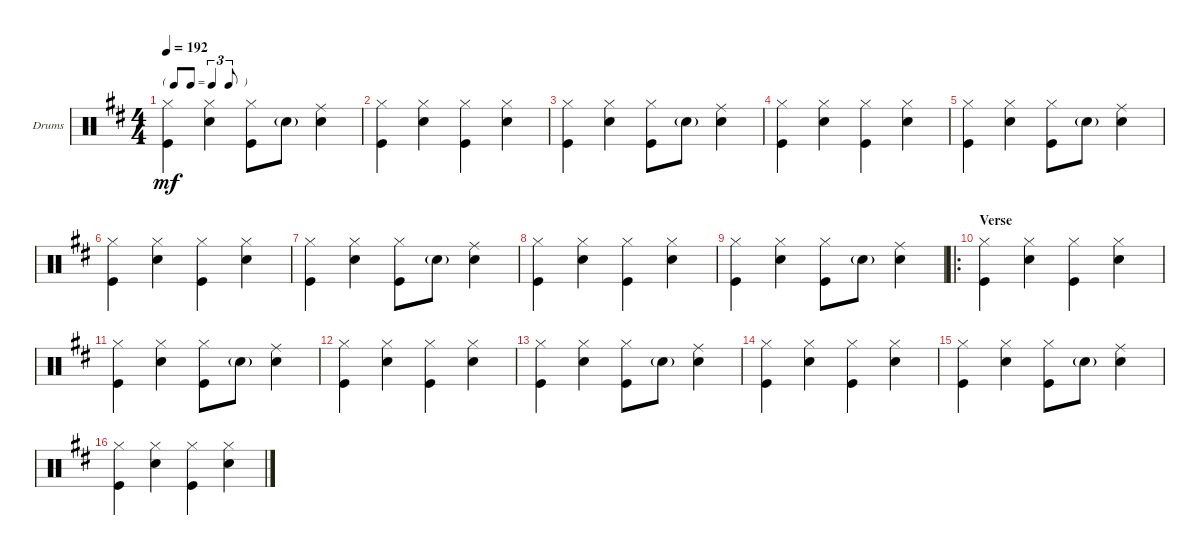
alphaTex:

\defaultSystemsLayout 4
\bracketExtendMode groupsimilarinstruments
\firstSystemTrackNameOrientation horizontal
\otherSystemsTrackNameOrientation horizontal
\track ("Drumkit" "Drums") {instrument percussion}
\staff {score}
\articulation defaults
\ts (4 4)
\tf triplet8th
\tempo 192
\clef neutral
\ks d
("Kick (hit)" "Hi-Hat (closed)").4{dy mf} ("Snare (hit) 2" "Hi-Hat (closed)").4 ("Kick (hit)" "Hi-Hat (closed)").8 "Snare (hit) 2"{g}.8 ("Snare (hit) 2" "Ride (middle)").4 |
("Kick (hit)" "Hi-Hat (closed)").4 ("Snare (hit) 2" "Hi-Hat (closed)").4 ("Kick (hit)" "Hi-Hat (closed)").4 ("Snare (hit) 2" "Hi-Hat (closed)").4 |
("Kick (hit)" "Hi-Hat (closed)").4 ("Snare (hit) 2" "Hi-Hat (closed)").4 ("Kick (hit)" "Hi-Hat (closed)").8 "Snare (hit) 2"{g}.8 ("Snare (hit) 2" "Ride (middle)").4 |
("Kick (hit)" "Hi-Hat (closed)").4 ("Snare (hit) 2" "Hi-Hat (closed)").4 ("Kick (hit)" "Hi-Hat (closed)").4 ("Snare (hit) 2" "Hi-Hat (closed)").4 |
("Kick (hit)" "Hi-Hat (closed)").4 ("Snare (hit) 2" "Hi-Hat (closed)").4 ("Kick (hit)" "Hi-Hat (closed)").8 "Snare (hit) 2"{g}.8 ("Snare (hit) 2" "Ride (middle)").4 |
("Kick (hit)" "Hi-Hat (closed)").4 ("Snare (hit) 2" "Hi-Hat (closed)").4 ("Kick (hit)" "Hi-Hat (closed)").4 ("Snare (hit) 2" "Hi-Hat (closed)").4 |
("Kick (hit)" "Hi-Hat (closed)").4 ("Snare (hit) 2" "Hi-Hat (closed)").4 ("Kick (hit)" "Hi-Hat (closed)").8 "Snare (hit) 2"{g}.8 ("Snare (hit) 2" "Ride (middle)").4 |
("Kick (hit)" "Hi-Hat (closed)").4 ("Snare (hit) 2" "Hi-Hat (closed)").4 ("Kick (hit)" "Hi-Hat (closed)").4 ("Snare (hit) 2" "Hi-Hat (closed)").4 |
("Kick (hit)" "Hi-Hat (closed)").4 ("Snare (hit) 2" "Hi-Hat (closed)").4 ("Kick (hit)" "Hi-Hat (closed)").8 "Snare (hit) 2"{g}.8 ("Snare (hit) 2" "Ride (middle)").4 |
\ro
\section ("" "Verse")
("Kick (hit)" "Hi-Hat (closed)").4 ("Snare (hit) 2" "Hi-Hat (closed)").4 ("Kick (hit)" "Hi-Hat (closed)").4 ("Snare (hit) 2" "Hi-Hat (closed)").4 |
("Kick (hit)" "Hi-Hat (closed)").4 ("Snare (hit) 2" "Hi-Hat (closed)").4 ("Kick (hit)" "Hi-Hat (closed)").8 "Snare (hit) 2"{g}.8 ("Snare (hit) 2" "Ride (middle)").4 |
("Kick (hit)" "Hi-Hat (closed)").4 ("Snare (hit) 2" "Hi-Hat (closed)").4 ("Kick (hit)" "Hi-Hat (closed)").4 ("Snare (hit) 2" "Hi-Hat (closed)").4 |
("Kick (hit)" "Hi-Hat (closed)").4 ("Snare (hit) 2" "Hi-Hat (closed)").4 ("Kick (hit)" "Hi-Hat (closed)").8 "Snare (hit) 2"{g}.8 ("Snare (hit) 2" "Ride (middle)").4 |
("Kick (hit)" "Hi-Hat (closed)").4 ("Snare (hit) 2" "Hi-Hat (closed)").4 ("Kick (hit)" "Hi-Hat (closed)").4 ("Snare (hit) 2" "Hi-Hat (closed)").4 |
("Kick (hit)" "Hi-Hat (closed)").4 ("Snare (hit) 2" "Hi-Hat (closed)").4 ("Kick (hit)" "Hi-Hat (closed)").8 "Snare (hit) 2"{g}.8 ("Snare (hit) 2" "Ride (middle)").4 |
("Kick (hit)" "Hi-Hat (closed)").4 ("Snare (hit) 2" "Hi-Hat (closed)").4 ("Kick (hit)" "Hi-Hat (closed)").4 ("Snare (hit) 2" "Hi-Hat (closed)").4
